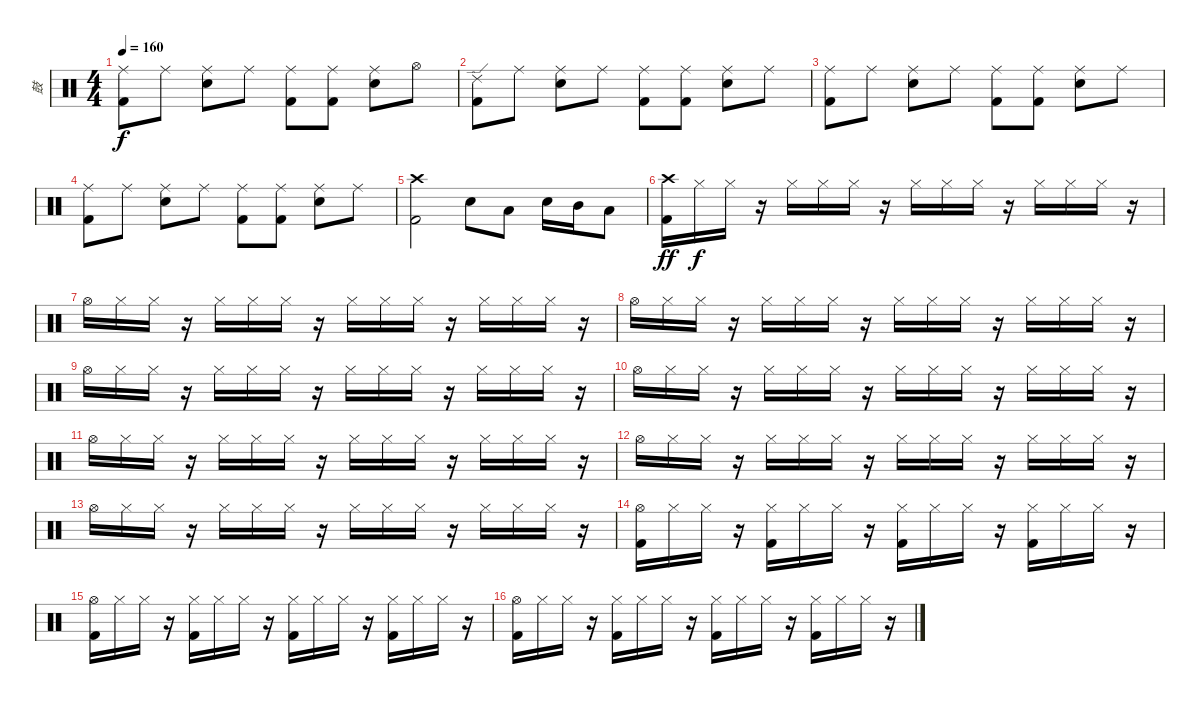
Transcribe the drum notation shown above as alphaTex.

\track ("鼓" "鼓") {instrument percussion}
\staff {score}
\articulation defaults
\ts (4 4)
\tempo 160
\clef neutral
\ks c
("Ride (middle)" "Kick (hit) 2").8{dy f} "Ride (middle)".8 ("Ride (middle)" "Snare (hit) 2").8 "Ride (middle)".8 ("Ride (middle)" "Kick (hit) 2").8 ("Ride (middle)" "Kick (hit) 2").8 ("Ride (middle)" "Snare (hit) 2").8 "Hi-Hat (open)".8 |
("Ride (edge) 2" "Kick (hit) 2").8 "Ride (middle)".8 ("Ride (middle)" "Snare (hit) 2").8 "Ride (middle)".8 ("Ride (middle)" "Kick (hit) 2").8 ("Ride (middle)" "Kick (hit) 2").8 ("Ride (middle)" "Snare (hit) 2").8 "Ride (middle)".8 |
("Ride (middle)" "Kick (hit) 2").8 "Ride (middle)".8 ("Ride (middle)" "Snare (hit) 2").8 "Ride (middle)".8 ("Ride (middle)" "Kick (hit) 2").8 ("Ride (middle)" "Kick (hit) 2").8 ("Ride (middle)" "Snare (hit) 2").8 "Ride (middle)".8 |
("Ride (middle)" "Kick (hit) 2").8 "Ride (middle)".8 ("Ride (middle)" "Snare (hit) 2").8 "Ride (middle)".8 ("Ride (middle)" "Kick (hit) 2").8 ("Ride (middle)" "Kick (hit) 2").8 ("Ride (middle)" "Snare (hit) 2").8 "Ride (middle)".8 |
("Crash high (hit)" "Kick (hit) 2").2 "Snare (hit) 2".8 "Low Tom (hit)".8 "Snare (hit) 2".16 "Mid Tom (hit)".16 "Low Floor Tom (hit)".8 |
("Crash high (hit)" "Kick (hit) 2").16{dy ff} "Hi-Hat (closed)".16{dy f} "Hi-Hat (closed)".16 r.16 "Hi-Hat (closed)".16 "Hi-Hat (closed)".16 "Hi-Hat (closed)".16 r.16 "Hi-Hat (closed)".16 "Hi-Hat (closed)".16 "Hi-Hat (closed)".16 r.16 "Hi-Hat (closed)".16 "Hi-Hat (closed)".16 "Hi-Hat (closed)".16 r.16 |
"Hi-Hat (open)".16 "Hi-Hat (closed)".16 "Hi-Hat (closed)".16 r.16 "Hi-Hat (closed)".16 "Hi-Hat (closed)".16 "Hi-Hat (closed)".16 r.16 "Hi-Hat (closed)".16 "Hi-Hat (closed)".16 "Hi-Hat (closed)".16 r.16 "Hi-Hat (closed)".16 "Hi-Hat (closed)".16 "Hi-Hat (closed)".16 r.16 |
"Hi-Hat (open)".16 "Hi-Hat (closed)".16 "Hi-Hat (closed)".16 r.16 "Hi-Hat (closed)".16 "Hi-Hat (closed)".16 "Hi-Hat (closed)".16 r.16 "Hi-Hat (closed)".16 "Hi-Hat (closed)".16 "Hi-Hat (closed)".16 r.16 "Hi-Hat (closed)".16 "Hi-Hat (closed)".16 "Hi-Hat (closed)".16 r.16 |
"Hi-Hat (open)".16 "Hi-Hat (closed)".16 "Hi-Hat (closed)".16 r.16 "Hi-Hat (closed)".16 "Hi-Hat (closed)".16 "Hi-Hat (closed)".16 r.16 "Hi-Hat (closed)".16 "Hi-Hat (closed)".16 "Hi-Hat (closed)".16 r.16 "Hi-Hat (closed)".16 "Hi-Hat (closed)".16 "Hi-Hat (closed)".16 r.16 |
"Hi-Hat (open)".16 "Hi-Hat (closed)".16 "Hi-Hat (closed)".16 r.16 "Hi-Hat (closed)".16 "Hi-Hat (closed)".16 "Hi-Hat (closed)".16 r.16 "Hi-Hat (closed)".16 "Hi-Hat (closed)".16 "Hi-Hat (closed)".16 r.16 "Hi-Hat (closed)".16 "Hi-Hat (closed)".16 "Hi-Hat (closed)".16 r.16 |
"Hi-Hat (open)".16 "Hi-Hat (closed)".16 "Hi-Hat (closed)".16 r.16 "Hi-Hat (closed)".16 "Hi-Hat (closed)".16 "Hi-Hat (closed)".16 r.16 "Hi-Hat (closed)".16 "Hi-Hat (closed)".16 "Hi-Hat (closed)".16 r.16 "Hi-Hat (closed)".16 "Hi-Hat (closed)".16 "Hi-Hat (closed)".16 r.16 |
"Hi-Hat (open)".16 "Hi-Hat (closed)".16 "Hi-Hat (closed)".16 r.16 "Hi-Hat (closed)".16 "Hi-Hat (closed)".16 "Hi-Hat (closed)".16 r.16 "Hi-Hat (closed)".16 "Hi-Hat (closed)".16 "Hi-Hat (closed)".16 r.16 "Hi-Hat (closed)".16 "Hi-Hat (closed)".16 "Hi-Hat (closed)".16 r.16 |
"Hi-Hat (open)".16 "Hi-Hat (closed)".16 "Hi-Hat (closed)".16 r.16 "Hi-Hat (closed)".16 "Hi-Hat (closed)".16 "Hi-Hat (closed)".16 r.16 "Hi-Hat (closed)".16 "Hi-Hat (closed)".16 "Hi-Hat (closed)".16 r.16 "Hi-Hat (closed)".16 "Hi-Hat (closed)".16 "Hi-Hat (closed)".16 r.16 |
("Hi-Hat (open)" "Kick (hit) 2").16 "Hi-Hat (closed)".16 "Hi-Hat (closed)".16 r.16 ("Hi-Hat (closed)" "Kick (hit) 2").16 "Hi-Hat (closed)".16 "Hi-Hat (closed)".16 r.16 ("Hi-Hat (closed)" "Kick (hit) 2").16 "Hi-Hat (closed)".16 "Hi-Hat (closed)".16 r.16 ("Hi-Hat (closed)" "Kick (hit) 2").16 "Hi-Hat (closed)".16 "Hi-Hat (closed)".16 r.16 |
("Hi-Hat (open)" "Kick (hit) 2").16 "Hi-Hat (closed)".16 "Hi-Hat (closed)".16 r.16 ("Hi-Hat (closed)" "Kick (hit) 2").16 "Hi-Hat (closed)".16 "Hi-Hat (closed)".16 r.16 ("Hi-Hat (closed)" "Kick (hit) 2").16 "Hi-Hat (closed)".16 "Hi-Hat (closed)".16 r.16 ("Hi-Hat (closed)" "Kick (hit) 2").16 "Hi-Hat (closed)".16 "Hi-Hat (closed)".16 r.16 |
("Hi-Hat (open)" "Kick (hit) 2").16 "Hi-Hat (closed)".16 "Hi-Hat (closed)".16 r.16 ("Hi-Hat (closed)" "Kick (hit) 2").16 "Hi-Hat (closed)".16 "Hi-Hat (closed)".16 r.16 ("Hi-Hat (closed)" "Kick (hit) 2").16 "Hi-Hat (closed)".16 "Hi-Hat (closed)".16 r.16 ("Hi-Hat (closed)" "Kick (hit) 2").16 "Hi-Hat (closed)".16 "Hi-Hat (closed)".16 r.16
